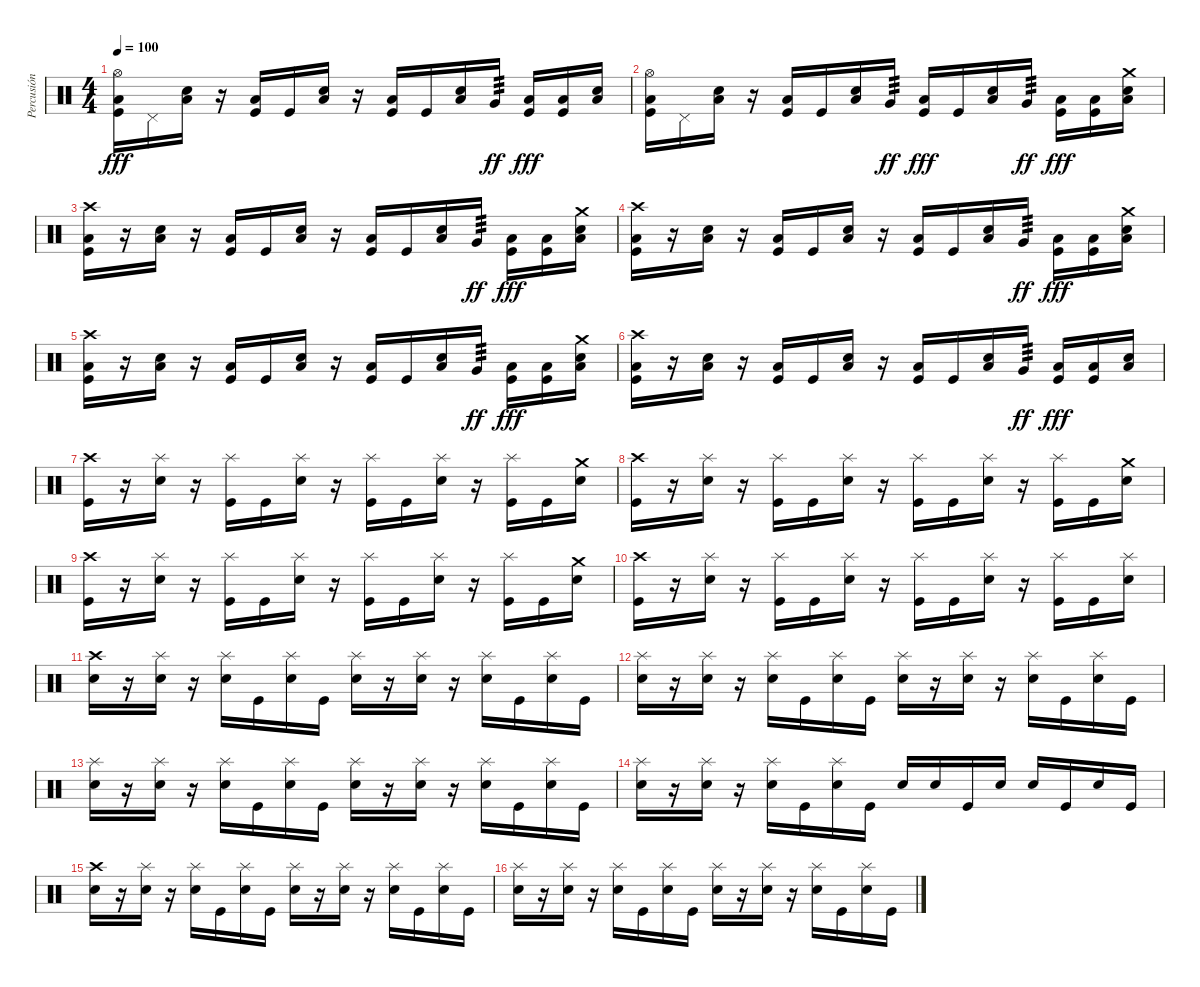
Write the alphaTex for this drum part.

\track ("Percusión" "Percusión") {instrument percussion}
\staff {score}
\articulation defaults
\ts (4 4)
\tempo 100
\clef neutral
\ks c
("Hi-Hat (open)" "Low Floor Tom (hit)" "Kick (hit)").16{dy fff} "Pedal Hi-Hat (hit)".16 ("Low Floor Tom (hit)" "Snare (hit) 2").16 r.16 ("Low Floor Tom (hit)" "Kick (hit)").16 "Kick (hit)".16 ("Low Floor Tom (hit)" "Snare (hit) 2").16 r.16 ("Low Floor Tom (hit)" "Kick (hit)").16 "Kick (hit)".16 ("Low Floor Tom (hit)" "Snare (hit) 2").16 "Very Low Tom (hit)".16{tp 3 dy ff} ("Low Floor Tom (hit)" "Kick (hit)").16{dy fff} ("Low Floor Tom (hit)" "Kick (hit)").16 ("Low Floor Tom (hit)" "Snare (hit) 2").16 |
("Hi-Hat (open)" "Low Floor Tom (hit)" "Kick (hit)").16 "Pedal Hi-Hat (hit)".16 ("Low Floor Tom (hit)" "Snare (hit) 2").16 r.16 ("Low Floor Tom (hit)" "Kick (hit)").16 "Kick (hit)".16 ("Low Floor Tom (hit)" "Snare (hit) 2").16 "Very Low Tom (hit)".16{tp 3 dy ff} ("Low Floor Tom (hit)" "Kick (hit)").16{dy fff} "Kick (hit)".16 ("Low Floor Tom (hit)" "Snare (hit) 2").16 "Very Low Tom (hit)".16{tp 3 dy ff} ("Low Floor Tom (hit)" "Kick (hit)").16{dy fff} ("Low Floor Tom (hit)" "Kick (hit)").16 ("Crash medium (hit)" "Low Floor Tom (hit)" "Snare (hit) 2").16 |
("Crash high (hit)" "Low Floor Tom (hit)" "Kick (hit)").16 r.16 ("Low Floor Tom (hit)" "Snare (hit) 2").16 r.16 ("Low Floor Tom (hit)" "Kick (hit)").16 "Kick (hit)".16 ("Low Floor Tom (hit)" "Snare (hit) 2").16 r.16 ("Low Floor Tom (hit)" "Kick (hit)").16 "Kick (hit)".16 ("Low Floor Tom (hit)" "Snare (hit) 2").16 "Very Low Tom (hit)".16{tp 3 dy ff} ("Low Floor Tom (hit)" "Kick (hit)").16{dy fff} ("Low Floor Tom (hit)" "Kick (hit)").16 ("Crash medium (hit)" "Low Floor Tom (hit)" "Snare (hit) 2").16 |
("Crash high (hit)" "Low Floor Tom (hit)" "Kick (hit)").16 r.16 ("Low Floor Tom (hit)" "Snare (hit) 2").16 r.16 ("Low Floor Tom (hit)" "Kick (hit)").16 "Kick (hit)".16 ("Low Floor Tom (hit)" "Snare (hit) 2").16 r.16 ("Low Floor Tom (hit)" "Kick (hit)").16 "Kick (hit)".16 ("Low Floor Tom (hit)" "Snare (hit) 2").16 "Very Low Tom (hit)".16{tp 3 dy ff} ("Low Floor Tom (hit)" "Kick (hit)").16{dy fff} ("Low Floor Tom (hit)" "Kick (hit)").16 ("Crash medium (hit)" "Low Floor Tom (hit)" "Snare (hit) 2").16 |
("Crash high (hit)" "Low Floor Tom (hit)" "Kick (hit)").16 r.16 ("Low Floor Tom (hit)" "Snare (hit) 2").16 r.16 ("Low Floor Tom (hit)" "Kick (hit)").16 "Kick (hit)".16 ("Low Floor Tom (hit)" "Snare (hit) 2").16 r.16 ("Low Floor Tom (hit)" "Kick (hit)").16 "Kick (hit)".16 ("Low Floor Tom (hit)" "Snare (hit) 2").16 "Very Low Tom (hit)".16{tp 3 dy ff} ("Low Floor Tom (hit)" "Kick (hit)").16{dy fff} ("Low Floor Tom (hit)" "Kick (hit)").16 ("Crash medium (hit)" "Low Floor Tom (hit)" "Snare (hit) 2").16 |
("Crash high (hit)" "Low Floor Tom (hit)" "Kick (hit)").16 r.16 ("Low Floor Tom (hit)" "Snare (hit) 2").16 r.16 ("Low Floor Tom (hit)" "Kick (hit)").16 "Kick (hit)".16 ("Low Floor Tom (hit)" "Snare (hit) 2").16 r.16 ("Low Floor Tom (hit)" "Kick (hit)").16 "Kick (hit)".16 ("Low Floor Tom (hit)" "Snare (hit) 2").16 "Very Low Tom (hit)".16{tp 3 dy ff} ("Low Floor Tom (hit)" "Kick (hit)").16{dy fff} ("Low Floor Tom (hit)" "Kick (hit)").16 ("Low Floor Tom (hit)" "Snare (hit) 2").16 |
("Crash high (hit)" "Kick (hit)").16 r.16 ("Splash (hit)" "Snare (hit) 2").16 r.16 ("Splash (hit)" "Kick (hit)").16 "Kick (hit)".16 ("Splash (hit)" "Snare (hit) 2").16 r.16 ("Splash (hit)" "Kick (hit)").16 "Kick (hit)".16 ("Splash (hit)" "Snare (hit) 2").16 r.16 ("Splash (hit)" "Kick (hit)").16 "Kick (hit)".16 ("Crash medium (hit)" "Snare (hit) 2").16 |
("Crash high (hit)" "Kick (hit)").16 r.16 ("Splash (hit)" "Snare (hit) 2").16 r.16 ("Splash (hit)" "Kick (hit)").16 "Kick (hit)".16 ("Splash (hit)" "Snare (hit) 2").16 r.16 ("Splash (hit)" "Kick (hit)").16 "Kick (hit)".16 ("Splash (hit)" "Snare (hit) 2").16 r.16 ("Splash (hit)" "Kick (hit)").16 "Kick (hit)".16 ("Crash medium (hit)" "Snare (hit) 2").16 |
("Crash high (hit)" "Kick (hit)").16 r.16 ("Splash (hit)" "Snare (hit) 2").16 r.16 ("Splash (hit)" "Kick (hit)").16 "Kick (hit)".16 ("Splash (hit)" "Snare (hit) 2").16 r.16 ("Splash (hit)" "Kick (hit)").16 "Kick (hit)".16 ("Splash (hit)" "Snare (hit) 2").16 r.16 ("Splash (hit)" "Kick (hit)").16 "Kick (hit)".16 ("Crash medium (hit)" "Snare (hit) 2").16 |
("Crash high (hit)" "Kick (hit)").16 r.16 ("Splash (hit)" "Snare (hit) 2").16 r.16 ("Splash (hit)" "Kick (hit)").16 "Kick (hit)".16 ("Splash (hit)" "Snare (hit) 2").16 r.16 ("Splash (hit)" "Kick (hit)").16 "Kick (hit)".16 ("Splash (hit)" "Snare (hit) 2").16 r.16 ("Splash (hit)" "Kick (hit)").16 "Kick (hit)".16 ("Splash (hit)" "Snare (hit) 2").16 |
("Crash high (hit)" "Snare (hit) 2").16 r.16 ("Splash (hit)" "Snare (hit) 2").16 r.16 ("Splash (hit)" "Snare (hit) 2").16 "Kick (hit)".16 ("Splash (hit)" "Snare (hit) 2").16 "Kick (hit)".16 ("Splash (hit)" "Snare (hit) 2").16 r.16 ("Splash (hit)" "Snare (hit) 2").16 r.16 ("Splash (hit)" "Snare (hit) 2").16 "Kick (hit)".16 ("Splash (hit)" "Snare (hit) 2").16 "Kick (hit)".16 |
("Splash (hit)" "Snare (hit) 2").16 r.16 ("Splash (hit)" "Snare (hit) 2").16 r.16 ("Splash (hit)" "Snare (hit) 2").16 "Kick (hit)".16 ("Splash (hit)" "Snare (hit) 2").16 "Kick (hit)".16 ("Splash (hit)" "Snare (hit) 2").16 r.16 ("Splash (hit)" "Snare (hit) 2").16 r.16 ("Splash (hit)" "Snare (hit) 2").16 "Kick (hit)".16 ("Splash (hit)" "Snare (hit) 2").16 "Kick (hit)".16 |
("Splash (hit)" "Snare (hit) 2").16 r.16 ("Splash (hit)" "Snare (hit) 2").16 r.16 ("Splash (hit)" "Snare (hit) 2").16 "Kick (hit)".16 ("Splash (hit)" "Snare (hit) 2").16 "Kick (hit)".16 ("Splash (hit)" "Snare (hit) 2").16 r.16 ("Splash (hit)" "Snare (hit) 2").16 r.16 ("Splash (hit)" "Snare (hit) 2").16 "Kick (hit)".16 ("Splash (hit)" "Snare (hit) 2").16 "Kick (hit)".16 |
("Splash (hit)" "Snare (hit) 2").16 r.16 ("Splash (hit)" "Snare (hit) 2").16 r.16 ("Splash (hit)" "Snare (hit) 2").16 "Kick (hit)".16 ("Splash (hit)" "Snare (hit) 2").16 "Kick (hit)".16 "Snare (hit) 2".16 "Snare (hit) 2".16 "Kick (hit)".16 "Snare (hit) 2".16 "Snare (hit) 2".16 "Kick (hit)".16 "Snare (hit) 2".16 "Kick (hit)".16 |
("Crash high (hit)" "Snare (hit) 2").16 r.16 ("Splash (hit)" "Snare (hit) 2").16 r.16 ("Splash (hit)" "Snare (hit) 2").16 "Kick (hit)".16 ("Splash (hit)" "Snare (hit) 2").16 "Kick (hit)".16 ("Splash (hit)" "Snare (hit) 2").16 r.16 ("Splash (hit)" "Snare (hit) 2").16 r.16 ("Splash (hit)" "Snare (hit) 2").16 "Kick (hit)".16 ("Splash (hit)" "Snare (hit) 2").16 "Kick (hit)".16 |
("Splash (hit)" "Snare (hit) 2").16 r.16 ("Splash (hit)" "Snare (hit) 2").16 r.16 ("Splash (hit)" "Snare (hit) 2").16 "Kick (hit)".16 ("Splash (hit)" "Snare (hit) 2").16 "Kick (hit)".16 ("Splash (hit)" "Snare (hit) 2").16 r.16 ("Splash (hit)" "Snare (hit) 2").16 r.16 ("Splash (hit)" "Snare (hit) 2").16 "Kick (hit)".16 ("Splash (hit)" "Snare (hit) 2").16 "Kick (hit)".16
